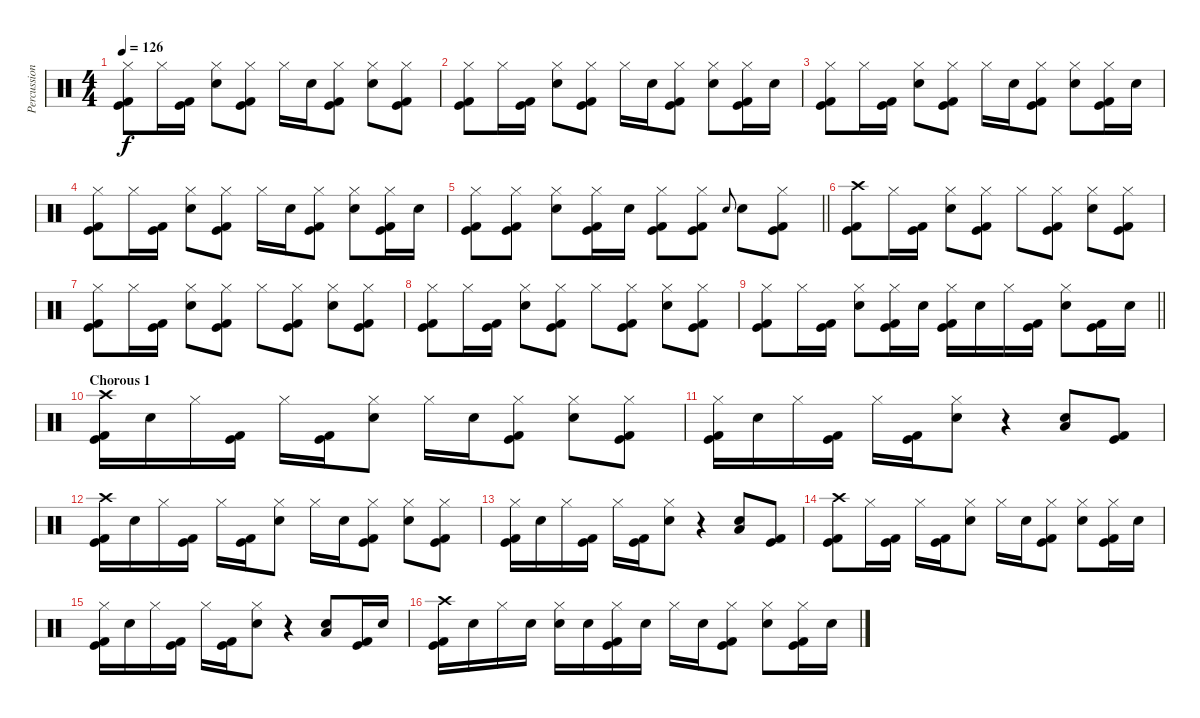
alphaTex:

\track ("Percussion" "Percussion") {instrument percussion}
\staff {score}
\articulation defaults
\ts (4 4)
\tempo 126
\clef neutral
\ks c
("Hi-Hat (closed)" "Kick (hit)" "Kick (hit) 2").8{dy f} "Hi-Hat (closed)".16 ("Kick (hit)" "Kick (hit) 2").16 ("Hi-Hat (closed)" "Electric Snare (hit)").8 ("Hi-Hat (closed)" "Kick (hit)" "Kick (hit) 2").8 "Hi-Hat (closed)".16 "Electric Snare (hit)".16 ("Hi-Hat (closed)" "Kick (hit)" "Kick (hit) 2").8 ("Hi-Hat (closed)" "Electric Snare (hit)").8 ("Hi-Hat (closed)" "Kick (hit)" "Kick (hit) 2").8 |
("Hi-Hat (closed)" "Kick (hit)" "Kick (hit) 2").8 "Hi-Hat (closed)".16 ("Kick (hit)" "Kick (hit) 2").16 ("Hi-Hat (closed)" "Electric Snare (hit)").8 ("Hi-Hat (closed)" "Kick (hit)" "Kick (hit) 2").8 "Hi-Hat (closed)".16 "Electric Snare (hit)".16 ("Hi-Hat (closed)" "Kick (hit)" "Kick (hit) 2").8 ("Hi-Hat (closed)" "Electric Snare (hit)").8 ("Hi-Hat (closed)" "Kick (hit)" "Kick (hit) 2").16 "Electric Snare (hit)".16 |
("Hi-Hat (closed)" "Kick (hit)" "Kick (hit) 2").8 "Hi-Hat (closed)".16 ("Kick (hit)" "Kick (hit) 2").16 ("Hi-Hat (closed)" "Electric Snare (hit)").8 ("Hi-Hat (closed)" "Kick (hit)" "Kick (hit) 2").8 "Hi-Hat (closed)".16 "Electric Snare (hit)".16 ("Hi-Hat (closed)" "Kick (hit)" "Kick (hit) 2").8 ("Hi-Hat (closed)" "Electric Snare (hit)").8 ("Hi-Hat (closed)" "Kick (hit)" "Kick (hit) 2").16 "Electric Snare (hit)".16 |
("Hi-Hat (closed)" "Kick (hit)" "Kick (hit) 2").8 "Hi-Hat (closed)".16 ("Kick (hit)" "Kick (hit) 2").16 ("Hi-Hat (closed)" "Electric Snare (hit)").8 ("Hi-Hat (closed)" "Kick (hit)" "Kick (hit) 2").8 "Hi-Hat (closed)".16 "Electric Snare (hit)".16 ("Hi-Hat (closed)" "Kick (hit)" "Kick (hit) 2").8 ("Hi-Hat (closed)" "Electric Snare (hit)").8 ("Hi-Hat (closed)" "Kick (hit)" "Kick (hit) 2").16 "Electric Snare (hit)".16 |
\barLineRight lightlight
("Hi-Hat (closed)" "Kick (hit)" "Kick (hit) 2").8 ("Hi-Hat (closed)" "Kick (hit)" "Kick (hit) 2").8 ("Hi-Hat (closed)" "Electric Snare (hit)").8 ("Hi-Hat (closed)" "Kick (hit)" "Kick (hit) 2").16 "Electric Snare (hit)".16 ("Hi-Hat (closed)" "Kick (hit)" "Kick (hit) 2").8 ("Hi-Hat (closed)" "Kick (hit)" "Kick (hit) 2").8 "Electric Snare (hit)".8{gr onbeat} "Electric Snare (hit)".8 ("Hi-Hat (closed)" "Kick (hit)" "Kick (hit) 2").8 |
\section ("" "")
("Crash high (hit)" "Kick (hit)" "Kick (hit) 2").8 "Hi-Hat (closed)".16 ("Kick (hit)" "Kick (hit) 2").16 ("Hi-Hat (closed)" "Electric Snare (hit)").8 ("Hi-Hat (closed)" "Kick (hit)" "Kick (hit) 2").8 "Hi-Hat (closed)".8 ("Hi-Hat (closed)" "Kick (hit)" "Kick (hit) 2").8 ("Hi-Hat (closed)" "Electric Snare (hit)").8 ("Hi-Hat (closed)" "Kick (hit)" "Kick (hit) 2").8 |
("Hi-Hat (closed)" "Kick (hit)" "Kick (hit) 2").8 "Hi-Hat (closed)".16 ("Kick (hit)" "Kick (hit) 2").16 ("Hi-Hat (closed)" "Electric Snare (hit)").8 ("Hi-Hat (closed)" "Kick (hit)" "Kick (hit) 2").8 "Hi-Hat (closed)".8 ("Hi-Hat (closed)" "Kick (hit)" "Kick (hit) 2").8 ("Hi-Hat (closed)" "Electric Snare (hit)").8 ("Hi-Hat (closed)" "Kick (hit)" "Kick (hit) 2").8 |
("Hi-Hat (closed)" "Kick (hit)" "Kick (hit) 2").8 "Hi-Hat (closed)".16 ("Kick (hit)" "Kick (hit) 2").16 ("Hi-Hat (closed)" "Electric Snare (hit)").8 ("Hi-Hat (closed)" "Kick (hit)" "Kick (hit) 2").8 "Hi-Hat (closed)".8 ("Hi-Hat (closed)" "Kick (hit)" "Kick (hit) 2").8 ("Hi-Hat (closed)" "Electric Snare (hit)").8 ("Hi-Hat (closed)" "Kick (hit)" "Kick (hit) 2").8 |
\barLineRight lightlight
("Hi-Hat (closed)" "Kick (hit)" "Kick (hit) 2").8 "Hi-Hat (closed)".16 ("Kick (hit)" "Kick (hit) 2").16 ("Hi-Hat (closed)" "Electric Snare (hit)").8 ("Hi-Hat (closed)" "Kick (hit)" "Kick (hit) 2").16 "Electric Snare (hit)".16 ("Hi-Hat (closed)" "Kick (hit)" "Kick (hit) 2").16 "Electric Snare (hit)".16 "Hi-Hat (closed)".16 ("Kick (hit)" "Kick (hit) 2").16 ("Hi-Hat (closed)" "Electric Snare (hit)").8 ("Kick (hit)" "Kick (hit) 2").16 "Electric Snare (hit)".16 |
\section ("" "Chorous 1")
("Crash high (hit)" "Kick (hit)" "Kick (hit) 2").16 "Electric Snare (hit)".16 "Hi-Hat (closed)".16 ("Kick (hit)" "Kick (hit) 2").16 "Hi-Hat (closed)".16 ("Kick (hit)" "Kick (hit) 2").16 ("Hi-Hat (closed)" "Electric Snare (hit)").8 "Hi-Hat (closed)".16 "Electric Snare (hit)".16 ("Hi-Hat (closed)" "Kick (hit)" "Kick (hit) 2").8 ("Hi-Hat (closed)" "Electric Snare (hit)").8 ("Hi-Hat (closed)" "Kick (hit)" "Kick (hit) 2").8 |
("Hi-Hat (closed)" "Kick (hit)" "Kick (hit) 2").16 "Electric Snare (hit)".16 "Hi-Hat (closed)".16 ("Kick (hit)" "Kick (hit) 2").16 "Hi-Hat (closed)".16 ("Kick (hit)" "Kick (hit) 2").16 ("Hi-Hat (closed)" "Electric Snare (hit)").8 r.4 ("Electric Snare (hit)" "Low Floor Tom (hit)").8 ("Kick (hit)" "Kick (hit) 2").8 |
("Crash high (hit)" "Kick (hit)" "Kick (hit) 2").16 "Electric Snare (hit)".16 "Hi-Hat (closed)".16 ("Kick (hit)" "Kick (hit) 2").16 "Hi-Hat (closed)".16 ("Kick (hit)" "Kick (hit) 2").16 ("Hi-Hat (closed)" "Electric Snare (hit)").8 "Hi-Hat (closed)".16 "Electric Snare (hit)".16 ("Hi-Hat (closed)" "Kick (hit)" "Kick (hit) 2").8 ("Hi-Hat (closed)" "Electric Snare (hit)").8 ("Hi-Hat (closed)" "Kick (hit)" "Kick (hit) 2").8 |
("Hi-Hat (closed)" "Kick (hit)" "Kick (hit) 2").16 "Electric Snare (hit)".16 "Hi-Hat (closed)".16 ("Kick (hit)" "Kick (hit) 2").16 "Hi-Hat (closed)".16 ("Kick (hit)" "Kick (hit) 2").16 ("Hi-Hat (closed)" "Electric Snare (hit)").8 r.4 ("Electric Snare (hit)" "Low Floor Tom (hit)").8 ("Kick (hit)" "Kick (hit) 2").8 |
("Crash high (hit)" "Kick (hit)" "Kick (hit) 2").8 "Hi-Hat (closed)".16 ("Kick (hit)" "Kick (hit) 2").16 "Hi-Hat (closed)".16 ("Kick (hit)" "Kick (hit) 2").16 ("Hi-Hat (closed)" "Electric Snare (hit)").8 "Hi-Hat (closed)".16 "Electric Snare (hit)".16 ("Hi-Hat (closed)" "Kick (hit)" "Kick (hit) 2").8 ("Hi-Hat (closed)" "Electric Snare (hit)").8 ("Hi-Hat (closed)" "Kick (hit)" "Kick (hit) 2").16 "Electric Snare (hit)".16 |
("Hi-Hat (closed)" "Kick (hit)" "Kick (hit) 2").16 "Electric Snare (hit)".16 "Hi-Hat (closed)".16 ("Kick (hit)" "Kick (hit) 2").16 "Hi-Hat (closed)".16 ("Kick (hit)" "Kick (hit) 2").16 ("Hi-Hat (closed)" "Electric Snare (hit)").8 r.4 ("Electric Snare (hit)" "Low Floor Tom (hit)").8 ("Kick (hit)" "Kick (hit) 2").16 "Electric Snare (hit)".16 |
("Crash high (hit)" "Kick (hit)" "Kick (hit) 2").16 "Electric Snare (hit)".16 "Hi-Hat (closed)".16 "Electric Snare (hit)".16 ("Hi-Hat (closed)" "Electric Snare (hit)").16 "Electric Snare (hit)".16 ("Hi-Hat (closed)" "Kick (hit)" "Kick (hit) 2").16 "Electric Snare (hit)".16 "Hi-Hat (closed)".16 "Electric Snare (hit)".16 ("Hi-Hat (closed)" "Kick (hit)" "Kick (hit) 2").8 ("Hi-Hat (closed)" "Electric Snare (hit)").8 ("Hi-Hat (closed)" "Kick (hit)" "Kick (hit) 2").16 "Electric Snare (hit)".16
